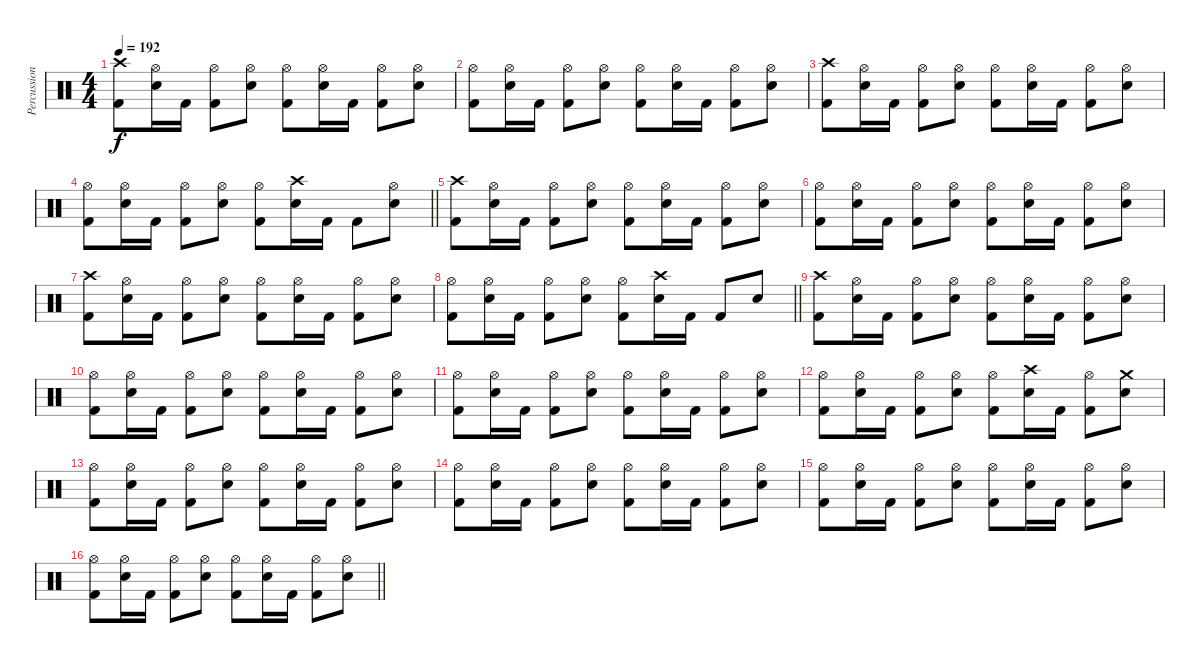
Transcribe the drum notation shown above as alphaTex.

\track ("Percussion" "Percussion") {instrument percussion}
\staff {score}
\articulation defaults
\ts (4 4)
\tempo 192
\clef neutral
\ks c
("Crash high (hit)" "Kick (hit) 2").8{dy f} ("Hi-Hat (open)" "Electric Snare (hit)").16 "Kick (hit) 2".16 ("Hi-Hat (open)" "Kick (hit) 2").8 ("Hi-Hat (open)" "Electric Snare (hit)").8 ("Hi-Hat (open)" "Kick (hit) 2").8 ("Hi-Hat (open)" "Electric Snare (hit)").16 "Kick (hit) 2".16 ("Hi-Hat (open)" "Kick (hit) 2").8 ("Hi-Hat (open)" "Electric Snare (hit)").8 |
("Hi-Hat (open)" "Kick (hit) 2").8 ("Hi-Hat (open)" "Electric Snare (hit)").16 "Kick (hit) 2".16 ("Hi-Hat (open)" "Kick (hit) 2").8 ("Hi-Hat (open)" "Electric Snare (hit)").8 ("Hi-Hat (open)" "Kick (hit) 2").8 ("Hi-Hat (open)" "Electric Snare (hit)").16 "Kick (hit) 2".16 ("Hi-Hat (open)" "Kick (hit) 2").8 ("Hi-Hat (open)" "Electric Snare (hit)").8 |
("Crash high (hit)" "Kick (hit) 2").8 ("Hi-Hat (open)" "Electric Snare (hit)").16 "Kick (hit) 2".16 ("Hi-Hat (open)" "Kick (hit) 2").8 ("Hi-Hat (open)" "Electric Snare (hit)").8 ("Hi-Hat (open)" "Kick (hit) 2").8 ("Hi-Hat (open)" "Electric Snare (hit)").16 "Kick (hit) 2".16 ("Hi-Hat (open)" "Kick (hit) 2").8 ("Hi-Hat (open)" "Electric Snare (hit)").8 |
\barLineRight lightlight
("Hi-Hat (open)" "Kick (hit) 2").8 ("Hi-Hat (open)" "Electric Snare (hit)").16 "Kick (hit) 2".16 ("Hi-Hat (open)" "Kick (hit) 2").8 ("Hi-Hat (open)" "Electric Snare (hit)").8 ("Hi-Hat (open)" "Kick (hit) 2").8 ("Crash high (hit)" "Electric Snare (hit)").16 "Kick (hit) 2".16 "Kick (hit) 2".8 ("Hi-Hat (open)" "Electric Snare (hit)").8 |
("Crash high (hit)" "Kick (hit) 2").8 ("Hi-Hat (open)" "Electric Snare (hit)").16 "Kick (hit) 2".16 ("Hi-Hat (open)" "Kick (hit) 2").8 ("Hi-Hat (open)" "Electric Snare (hit)").8 ("Hi-Hat (open)" "Kick (hit) 2").8 ("Hi-Hat (open)" "Electric Snare (hit)").16 "Kick (hit) 2".16 ("Hi-Hat (open)" "Kick (hit) 2").8 ("Hi-Hat (open)" "Electric Snare (hit)").8 |
("Hi-Hat (open)" "Kick (hit) 2").8 ("Hi-Hat (open)" "Electric Snare (hit)").16 "Kick (hit) 2".16 ("Hi-Hat (open)" "Kick (hit) 2").8 ("Hi-Hat (open)" "Electric Snare (hit)").8 ("Hi-Hat (open)" "Kick (hit) 2").8 ("Hi-Hat (open)" "Electric Snare (hit)").16 "Kick (hit) 2".16 ("Hi-Hat (open)" "Kick (hit) 2").8 ("Hi-Hat (open)" "Electric Snare (hit)").8 |
("Crash high (hit)" "Kick (hit) 2").8 ("Hi-Hat (open)" "Electric Snare (hit)").16 "Kick (hit) 2".16 ("Hi-Hat (open)" "Kick (hit) 2").8 ("Hi-Hat (open)" "Electric Snare (hit)").8 ("Hi-Hat (open)" "Kick (hit) 2").8 ("Hi-Hat (open)" "Electric Snare (hit)").16 "Kick (hit) 2".16 ("Hi-Hat (open)" "Kick (hit) 2").8 ("Hi-Hat (open)" "Electric Snare (hit)").8 |
\barLineRight lightlight
("Hi-Hat (open)" "Kick (hit) 2").8 ("Hi-Hat (open)" "Electric Snare (hit)").16 "Kick (hit) 2".16 ("Hi-Hat (open)" "Kick (hit) 2").8 ("Hi-Hat (open)" "Electric Snare (hit)").8 ("Hi-Hat (open)" "Kick (hit) 2").8 ("Crash high (hit)" "Electric Snare (hit)").16 "Kick (hit) 2".16 "Kick (hit) 2".8 "Electric Snare (hit)".8 |
("Crash high (hit)" "Kick (hit) 2").8 ("Hi-Hat (open)" "Electric Snare (hit)").16 "Kick (hit) 2".16 ("Hi-Hat (open)" "Kick (hit) 2").8 ("Hi-Hat (open)" "Electric Snare (hit)").8 ("Hi-Hat (open)" "Kick (hit) 2").8 ("Hi-Hat (open)" "Electric Snare (hit)").16 "Kick (hit) 2".16 ("Hi-Hat (open)" "Kick (hit) 2").8 ("Hi-Hat (open)" "Electric Snare (hit)").8 |
("Hi-Hat (open)" "Kick (hit) 2").8 ("Hi-Hat (open)" "Electric Snare (hit)").16 "Kick (hit) 2".16 ("Hi-Hat (open)" "Kick (hit) 2").8 ("Hi-Hat (open)" "Electric Snare (hit)").8 ("Hi-Hat (open)" "Kick (hit) 2").8 ("Hi-Hat (open)" "Electric Snare (hit)").16 "Kick (hit) 2".16 ("Hi-Hat (open)" "Kick (hit) 2").8 ("Hi-Hat (open)" "Electric Snare (hit)").8 |
("Hi-Hat (open)" "Kick (hit) 2").8 ("Hi-Hat (open)" "Electric Snare (hit)").16 "Kick (hit) 2".16 ("Hi-Hat (open)" "Kick (hit) 2").8 ("Hi-Hat (open)" "Electric Snare (hit)").8 ("Hi-Hat (open)" "Kick (hit) 2").8 ("Hi-Hat (open)" "Electric Snare (hit)").16 "Kick (hit) 2".16 ("Hi-Hat (open)" "Kick (hit) 2").8 ("Hi-Hat (open)" "Electric Snare (hit)").8 |
("Hi-Hat (open)" "Kick (hit) 2").8 ("Hi-Hat (open)" "Electric Snare (hit)").16 "Kick (hit) 2".16 ("Hi-Hat (open)" "Kick (hit) 2").8 ("Hi-Hat (open)" "Electric Snare (hit)").8 ("Hi-Hat (open)" "Kick (hit) 2").8 ("Crash high (hit)" "Electric Snare (hit)").16 "Kick (hit) 2".16 ("Hi-Hat (open)" "Kick (hit) 2").8 ("Crash medium (hit)" "Electric Snare (hit)").8 |
("Hi-Hat (open)" "Kick (hit) 2").8 ("Hi-Hat (open)" "Electric Snare (hit)").16 "Kick (hit) 2".16 ("Hi-Hat (open)" "Kick (hit) 2").8 ("Hi-Hat (open)" "Electric Snare (hit)").8 ("Hi-Hat (open)" "Kick (hit) 2").8 ("Hi-Hat (open)" "Electric Snare (hit)").16 "Kick (hit) 2".16 ("Hi-Hat (open)" "Kick (hit) 2").8 ("Hi-Hat (open)" "Electric Snare (hit)").8 |
("Hi-Hat (open)" "Kick (hit) 2").8 ("Hi-Hat (open)" "Electric Snare (hit)").16 "Kick (hit) 2".16 ("Hi-Hat (open)" "Kick (hit) 2").8 ("Hi-Hat (open)" "Electric Snare (hit)").8 ("Hi-Hat (open)" "Kick (hit) 2").8 ("Hi-Hat (open)" "Electric Snare (hit)").16 "Kick (hit) 2".16 ("Hi-Hat (open)" "Kick (hit) 2").8 ("Hi-Hat (open)" "Electric Snare (hit)").8 |
("Hi-Hat (open)" "Kick (hit) 2").8 ("Hi-Hat (open)" "Electric Snare (hit)").16 "Kick (hit) 2".16 ("Hi-Hat (open)" "Kick (hit) 2").8 ("Hi-Hat (open)" "Electric Snare (hit)").8 ("Hi-Hat (open)" "Kick (hit) 2").8 ("Hi-Hat (open)" "Electric Snare (hit)").16 "Kick (hit) 2".16 ("Hi-Hat (open)" "Kick (hit) 2").8 ("Hi-Hat (open)" "Electric Snare (hit)").8 |
\barLineRight lightlight
("Hi-Hat (open)" "Kick (hit) 2").8 ("Hi-Hat (open)" "Electric Snare (hit)").16 "Kick (hit) 2".16 ("Hi-Hat (open)" "Kick (hit) 2").8 ("Hi-Hat (open)" "Electric Snare (hit)").8 ("Hi-Hat (open)" "Kick (hit) 2").8 ("Hi-Hat (open)" "Electric Snare (hit)").16 "Kick (hit) 2".16 ("Hi-Hat (open)" "Kick (hit) 2").8 ("Hi-Hat (open)" "Electric Snare (hit)").8
